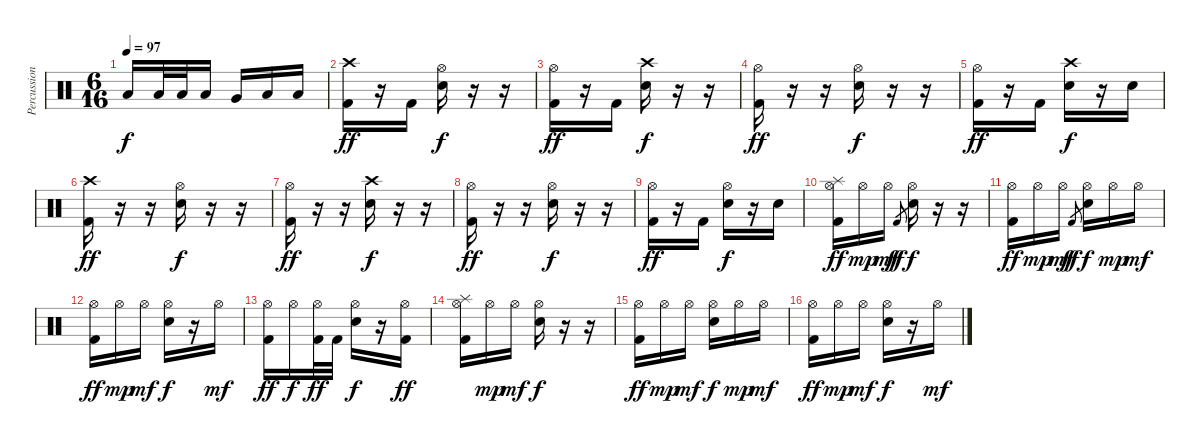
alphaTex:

\track ("Percussion" "Percussion") {instrument percussion}
\staff {score}
\articulation defaults
\ts (6 16)
\tempo 97
\clef neutral
\ks c "Low Tom (hit)".16{dy f} "Low Tom (hit)".32 "Low Tom (hit)".32 "Low Tom (hit)".16 "Very Low Tom (hit)".16 "Low Floor Tom (hit)".16 "Low Floor Tom (hit)".16
|
("Crash high (hit)" "Kick (hit) 2").16{dy ff} r.16 "Kick (hit) 2".16 ("Hi-Hat (open)" "Electric Snare (hit)").16{dy f} r.16 r.16 |
("Hi-Hat (open)" "Kick (hit) 2").16{dy ff} r.16 "Kick (hit) 2".16 ("Crash high (hit)" "Electric Snare (hit)").16{dy f} r.16 r.16 |
("Hi-Hat (open)" "Kick (hit) 2").16{dy ff} r.16 r.16 ("Hi-Hat (open)" "Electric Snare (hit)").16{dy f} r.16 r.16 |
("Hi-Hat (open)" "Kick (hit) 2").16{dy ff} r.16 "Kick (hit) 2".16 ("Crash high (hit)" "Electric Snare (hit)").16{dy f} r.16 "Electric Snare (hit)".16 |
("Crash high (hit)" "Kick (hit) 2").16{dy ff} r.16 r.16 ("Hi-Hat (open)" "Electric Snare (hit)").16{dy f} r.16 r.16 |
("Hi-Hat (open)" "Kick (hit) 2").16{dy ff} r.16 r.16 ("Crash high (hit)" "Electric Snare (hit)").16{dy f} r.16 r.16 |
("Hi-Hat (open)" "Kick (hit) 2").16{dy ff} r.16 r.16 ("Hi-Hat (open)" "Electric Snare (hit)").16{dy f} r.16 r.16 |
("Hi-Hat (open)" "Kick (hit) 2").16{dy ff} r.16 "Kick (hit) 2".16 ("Hi-Hat (open)" "Electric Snare (hit)").16{dy f} r.16 "Electric Snare (hit)".16 |
("Splash (hit)" "Hi-Hat (open)" "Kick (hit) 2").16{dy ff} "Hi-Hat (open)".16{dy mp} "Hi-Hat (open)".16{dy mf} "Kick (hit) 2".8{gr dy ff} ("Hi-Hat (open)" "Electric Snare (hit)").16{dy f} r.16 r.16 |
("Hi-Hat (open)" "Kick (hit) 2").16{dy ff} "Hi-Hat (open)".16{dy mp} "Hi-Hat (open)".16{dy mf} "Kick (hit) 2".8{gr dy ff} ("Hi-Hat (open)" "Electric Snare (hit)").16{dy f} "Hi-Hat (open)".16{dy mp} "Hi-Hat (open)".16{dy mf} |
("Hi-Hat (open)" "Kick (hit) 2").16{dy ff} "Hi-Hat (open)".16{dy mp} "Hi-Hat (open)".16{dy mf} ("Hi-Hat (open)" "Electric Snare (hit)").16{dy f} r.16 "Hi-Hat (open)".16{dy mf} |
("Hi-Hat (open)" "Kick (hit) 2").16{dy ff} "Hi-Hat (open)".16{dy f} ("Hi-Hat (open)" "Kick (hit) 2").32{dy ff} "Kick (hit) 2".32 ("Hi-Hat (open)" "Electric Snare (hit)").16{dy f} r.16 ("Hi-Hat (open)" "Kick (hit) 2").16{dy ff} |
("Splash (hit)" "Hi-Hat (open)" "Kick (hit) 2").16 "Hi-Hat (open)".16{dy mp} "Hi-Hat (open)".16{dy mf} ("Hi-Hat (open)" "Electric Snare (hit)").16{dy f} r.16 r.16 |
("Hi-Hat (open)" "Kick (hit) 2").16{dy ff} "Hi-Hat (open)".16{dy mp} "Hi-Hat (open)".16{dy mf} ("Hi-Hat (open)" "Electric Snare (hit)").16{dy f} "Hi-Hat (open)".16{dy mp} "Hi-Hat (open)".16{dy mf} |
("Hi-Hat (open)" "Kick (hit) 2").16{dy ff} "Hi-Hat (open)".16{dy mp} "Hi-Hat (open)".16{dy mf} ("Hi-Hat (open)" "Electric Snare (hit)").16{dy f} r.16 "Hi-Hat (open)".16{dy mf}
